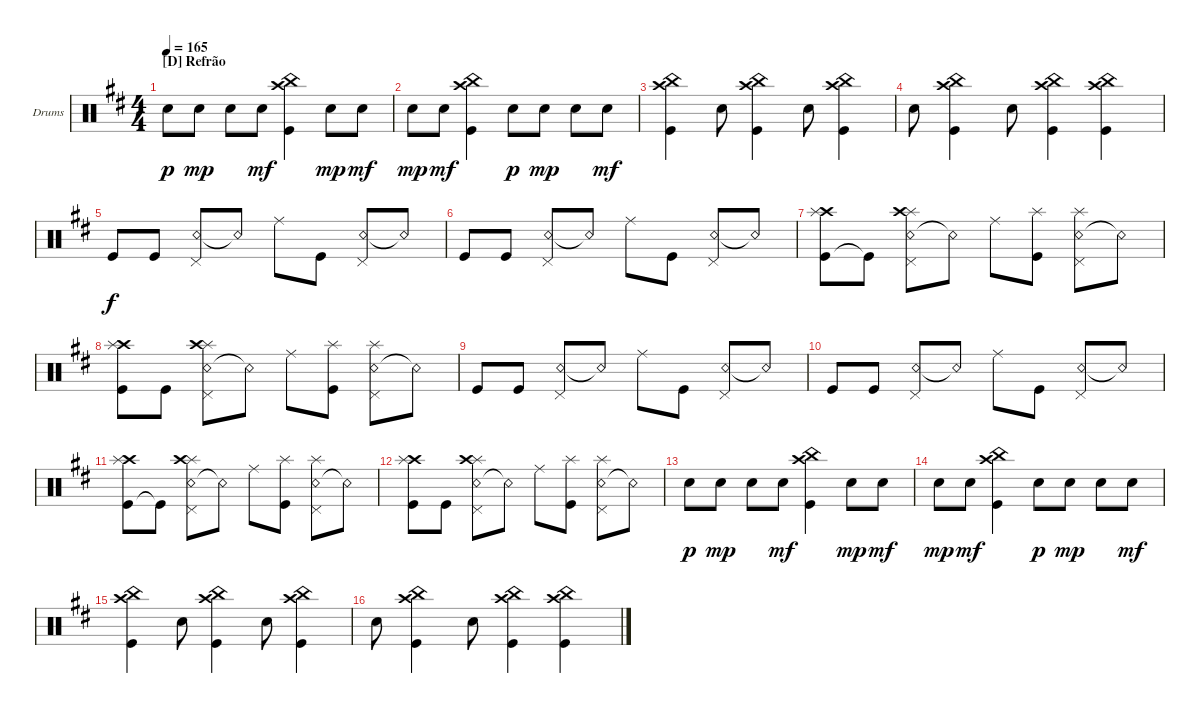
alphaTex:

\defaultSystemsLayout 4
\bracketExtendMode groupsimilarinstruments
\firstSystemTrackNameOrientation horizontal
\otherSystemsTrackNameOrientation horizontal
\track ("Bateria" "Drums") {multiBarRest instrument percussion}
\staff {score}
\articulation defaults
\ts (4 4)
\section ("D" "Refrão")
\tempo 165
\clef neutral
\ks d "Snare (hit) 2".8{dy p} "Snare (hit) 2".8{dy mp} "Snare (hit) 2".8 "Snare (hit) 2".8{dy mf}
("Crash high (hit)" "China (hit)" "Kick (hit)").4 "Snare (hit) 2".8{dy mp} "Snare (hit) 2".8{dy mf} |
"Snare (hit) 2".8{dy mp} "Snare (hit) 2".8{dy mf} ("Crash high (hit)" "China (hit)" "Kick (hit)").4 "Snare (hit) 2".8{dy p} "Snare (hit) 2".8{dy mp} "Snare (hit) 2".8 "Snare (hit) 2".8{dy mf} |
("Crash high (hit)" "China (hit)" "Kick (hit)").4 "Snare (hit) 2".8 ("Crash high (hit)" "China (hit)" "Kick (hit)").4 "Snare (hit) 2".8 ("Crash high (hit)" "China (hit)" "Kick (hit)").4 |
"Snare (hit) 2".8 ("Crash high (hit)" "China (hit)" "Kick (hit)").4 "Snare (hit) 2".8 ("Crash high (hit)" "China (hit)" "Kick (hit)").4 ("Crash high (hit)" "China (hit)" "Kick (hit)").4 |
"Kick (hit)".8{dy f} "Kick (hit)".8 ("Snare (rim shot)" "Pedal Hi-Hat (hit)").8 "Snare (rim shot)"{t}.8 "Ride (middle)".8 "Kick (hit)".8 ("Snare (rim shot)" "Pedal Hi-Hat (hit)").8 "Snare (rim shot)"{t}.8 |
"Kick (hit)".8 "Kick (hit)".8 ("Snare (rim shot)" "Pedal Hi-Hat (hit)").8 "Snare (rim shot)"{t}.8 "Ride (middle)".8 "Kick (hit)".8 ("Snare (rim shot)" "Pedal Hi-Hat (hit)").8 "Snare (rim shot)"{t}.8 |
("Kick (hit)" "Crash high (hit)" "Splash (hit)").8 "Kick (hit)"{t}.8 ("Snare (rim shot)" "Pedal Hi-Hat (hit)" "Splash (hit)" "Crash high (hit)").8 "Snare (rim shot)"{t}.8 "Ride (middle)".8 ("Kick (hit)" "Splash (hit)").8 ("Snare (rim shot)" "Pedal Hi-Hat (hit)" "Splash (hit)").8 "Snare (rim shot)"{t}.8 |
("Kick (hit)" "Crash high (hit)" "Splash (hit)").8 "Kick (hit)".8 ("Snare (rim shot)" "Pedal Hi-Hat (hit)" "Splash (hit)" "Crash high (hit)").8 "Snare (rim shot)"{t}.8 "Ride (middle)".8 ("Kick (hit)" "Splash (hit)").8 ("Snare (rim shot)" "Pedal Hi-Hat (hit)" "Splash (hit)").8 "Snare (rim shot)"{t}.8 |
"Kick (hit)".8 "Kick (hit)".8 ("Snare (rim shot)" "Pedal Hi-Hat (hit)").8 "Snare (rim shot)"{t}.8 "Ride (middle)".8 "Kick (hit)".8 ("Snare (rim shot)" "Pedal Hi-Hat (hit)").8 "Snare (rim shot)"{t}.8 |
"Kick (hit)".8 "Kick (hit)".8 ("Snare (rim shot)" "Pedal Hi-Hat (hit)").8 "Snare (rim shot)"{t}.8 "Ride (middle)".8 "Kick (hit)".8 ("Snare (rim shot)" "Pedal Hi-Hat (hit)").8 "Snare (rim shot)"{t}.8 |
("Kick (hit)" "Crash high (hit)" "Splash (hit)").8 "Kick (hit)"{t}.8 ("Snare (rim shot)" "Pedal Hi-Hat (hit)" "Splash (hit)" "Crash high (hit)").8 "Snare (rim shot)"{t}.8 "Ride (middle)".8 ("Kick (hit)" "Splash (hit)").8 ("Snare (rim shot)" "Pedal Hi-Hat (hit)" "Splash (hit)").8 "Snare (rim shot)"{t}.8 |
("Kick (hit)" "Crash high (hit)" "Splash (hit)").8 "Kick (hit)".8 ("Snare (rim shot)" "Pedal Hi-Hat (hit)" "Splash (hit)" "Crash high (hit)").8 "Snare (rim shot)"{t}.8 "Ride (middle)".8 ("Kick (hit)" "Splash (hit)").8 ("Snare (rim shot)" "Pedal Hi-Hat (hit)" "Splash (hit)").8 "Snare (rim shot)"{t}.8 |
"Snare (hit) 2".8{dy p} "Snare (hit) 2".8{dy mp} "Snare (hit) 2".8 "Snare (hit) 2".8{dy mf} ("Crash high (hit)" "China (hit)" "Kick (hit)").4 "Snare (hit) 2".8{dy mp} "Snare (hit) 2".8{dy mf} |
"Snare (hit) 2".8{dy mp} "Snare (hit) 2".8{dy mf} ("Crash high (hit)" "China (hit)" "Kick (hit)").4 "Snare (hit) 2".8{dy p} "Snare (hit) 2".8{dy mp} "Snare (hit) 2".8 "Snare (hit) 2".8{dy mf} |
("Crash high (hit)" "China (hit)" "Kick (hit)").4 "Snare (hit) 2".8 ("Crash high (hit)" "China (hit)" "Kick (hit)").4 "Snare (hit) 2".8 ("Crash high (hit)" "China (hit)" "Kick (hit)").4 |
"Snare (hit) 2".8 ("Crash high (hit)" "China (hit)" "Kick (hit)").4 "Snare (hit) 2".8 ("Crash high (hit)" "China (hit)" "Kick (hit)").4 ("Crash high (hit)" "China (hit)" "Kick (hit)").4
